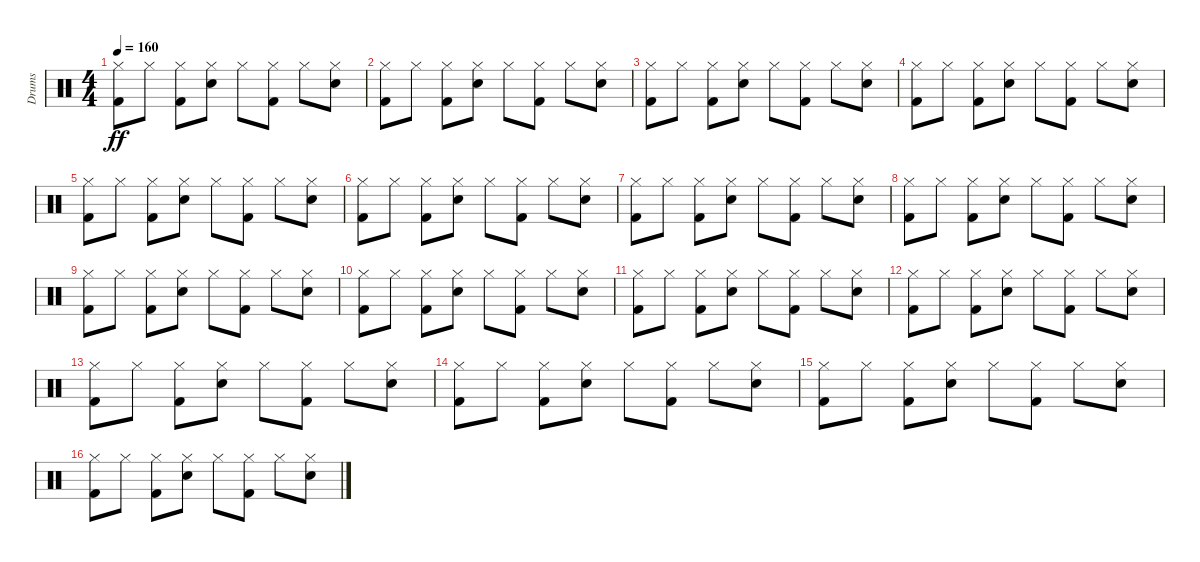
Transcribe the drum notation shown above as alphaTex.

\track ("Drums" "Drums") {instrument percussion}
\staff {score}
\articulation defaults
\ts (4 4)
\tempo 160
\clef neutral
\ks c
("Kick (hit) 2" "Hi-Hat (closed)").8{dy ff} "Hi-Hat (closed)".8 ("Kick (hit) 2" "Hi-Hat (closed)").8 ("Snare (hit) 2" "Hi-Hat (closed)").8 "Hi-Hat (closed)".8 ("Kick (hit) 2" "Hi-Hat (closed)").8 "Hi-Hat (closed)".8 ("Snare (hit) 2" "Hi-Hat (closed)").8 |
("Kick (hit) 2" "Hi-Hat (closed)").8 "Hi-Hat (closed)".8 ("Kick (hit) 2" "Hi-Hat (closed)").8 ("Snare (hit) 2" "Hi-Hat (closed)").8 "Hi-Hat (closed)".8 ("Kick (hit) 2" "Hi-Hat (closed)").8 "Hi-Hat (closed)".8 ("Snare (hit) 2" "Hi-Hat (closed)").8 |
("Kick (hit) 2" "Hi-Hat (closed)").8 "Hi-Hat (closed)".8 ("Kick (hit) 2" "Hi-Hat (closed)").8 ("Snare (hit) 2" "Hi-Hat (closed)").8 "Hi-Hat (closed)".8 ("Kick (hit) 2" "Hi-Hat (closed)").8 "Hi-Hat (closed)".8 ("Snare (hit) 2" "Hi-Hat (closed)").8 |
("Kick (hit) 2" "Hi-Hat (closed)").8 "Hi-Hat (closed)".8 ("Kick (hit) 2" "Hi-Hat (closed)").8 ("Snare (hit) 2" "Hi-Hat (closed)").8 "Hi-Hat (closed)".8 ("Kick (hit) 2" "Hi-Hat (closed)").8 "Hi-Hat (closed)".8 ("Snare (hit) 2" "Hi-Hat (closed)").8 |
("Kick (hit) 2" "Hi-Hat (closed)").8 "Hi-Hat (closed)".8 ("Kick (hit) 2" "Hi-Hat (closed)").8 ("Snare (hit) 2" "Hi-Hat (closed)").8 "Hi-Hat (closed)".8 ("Kick (hit) 2" "Hi-Hat (closed)").8 "Hi-Hat (closed)".8 ("Snare (hit) 2" "Hi-Hat (closed)").8 |
("Kick (hit) 2" "Hi-Hat (closed)").8 "Hi-Hat (closed)".8 ("Kick (hit) 2" "Hi-Hat (closed)").8 ("Snare (hit) 2" "Hi-Hat (closed)").8 "Hi-Hat (closed)".8 ("Kick (hit) 2" "Hi-Hat (closed)").8 "Hi-Hat (closed)".8 ("Snare (hit) 2" "Hi-Hat (closed)").8 |
("Kick (hit) 2" "Hi-Hat (closed)").8 "Hi-Hat (closed)".8 ("Kick (hit) 2" "Hi-Hat (closed)").8 ("Snare (hit) 2" "Hi-Hat (closed)").8 "Hi-Hat (closed)".8 ("Kick (hit) 2" "Hi-Hat (closed)").8 "Hi-Hat (closed)".8 ("Snare (hit) 2" "Hi-Hat (closed)").8 |
("Kick (hit) 2" "Hi-Hat (closed)").8 "Hi-Hat (closed)".8 ("Kick (hit) 2" "Hi-Hat (closed)").8 ("Snare (hit) 2" "Hi-Hat (closed)").8 "Hi-Hat (closed)".8 ("Kick (hit) 2" "Hi-Hat (closed)").8 "Hi-Hat (closed)".8 ("Snare (hit) 2" "Hi-Hat (closed)").8 |
("Kick (hit) 2" "Hi-Hat (closed)").8 "Hi-Hat (closed)".8 ("Kick (hit) 2" "Hi-Hat (closed)").8 ("Snare (hit) 2" "Hi-Hat (closed)").8 "Hi-Hat (closed)".8 ("Kick (hit) 2" "Hi-Hat (closed)").8 "Hi-Hat (closed)".8 ("Snare (hit) 2" "Hi-Hat (closed)").8 |
("Kick (hit) 2" "Hi-Hat (closed)").8 "Hi-Hat (closed)".8 ("Kick (hit) 2" "Hi-Hat (closed)").8 ("Snare (hit) 2" "Hi-Hat (closed)").8 "Hi-Hat (closed)".8 ("Kick (hit) 2" "Hi-Hat (closed)").8 "Hi-Hat (closed)".8 ("Snare (hit) 2" "Hi-Hat (closed)").8 |
("Kick (hit) 2" "Hi-Hat (closed)").8 "Hi-Hat (closed)".8 ("Kick (hit) 2" "Hi-Hat (closed)").8 ("Snare (hit) 2" "Hi-Hat (closed)").8 "Hi-Hat (closed)".8 ("Kick (hit) 2" "Hi-Hat (closed)").8 "Hi-Hat (closed)".8 ("Snare (hit) 2" "Hi-Hat (closed)").8 |
("Kick (hit) 2" "Hi-Hat (closed)").8 "Hi-Hat (closed)".8 ("Kick (hit) 2" "Hi-Hat (closed)").8 ("Snare (hit) 2" "Hi-Hat (closed)").8 "Hi-Hat (closed)".8 ("Kick (hit) 2" "Hi-Hat (closed)").8 "Hi-Hat (closed)".8 ("Snare (hit) 2" "Hi-Hat (closed)").8 |
("Kick (hit) 2" "Hi-Hat (closed)").8 "Hi-Hat (closed)".8 ("Kick (hit) 2" "Hi-Hat (closed)").8 ("Snare (hit) 2" "Hi-Hat (closed)").8 "Hi-Hat (closed)".8 ("Kick (hit) 2" "Hi-Hat (closed)").8 "Hi-Hat (closed)".8 ("Snare (hit) 2" "Hi-Hat (closed)").8 |
("Kick (hit) 2" "Hi-Hat (closed)").8 "Hi-Hat (closed)".8 ("Kick (hit) 2" "Hi-Hat (closed)").8 ("Snare (hit) 2" "Hi-Hat (closed)").8 "Hi-Hat (closed)".8 ("Kick (hit) 2" "Hi-Hat (closed)").8 "Hi-Hat (closed)".8 ("Snare (hit) 2" "Hi-Hat (closed)").8 |
("Kick (hit) 2" "Hi-Hat (closed)").8 "Hi-Hat (closed)".8 ("Kick (hit) 2" "Hi-Hat (closed)").8 ("Snare (hit) 2" "Hi-Hat (closed)").8 "Hi-Hat (closed)".8 ("Kick (hit) 2" "Hi-Hat (closed)").8 "Hi-Hat (closed)".8 ("Snare (hit) 2" "Hi-Hat (closed)").8 |
("Kick (hit) 2" "Hi-Hat (closed)").8 "Hi-Hat (closed)".8 ("Kick (hit) 2" "Hi-Hat (closed)").8 ("Snare (hit) 2" "Hi-Hat (closed)").8 "Hi-Hat (closed)".8 ("Kick (hit) 2" "Hi-Hat (closed)").8 "Hi-Hat (closed)".8 ("Snare (hit) 2" "Hi-Hat (closed)").8
